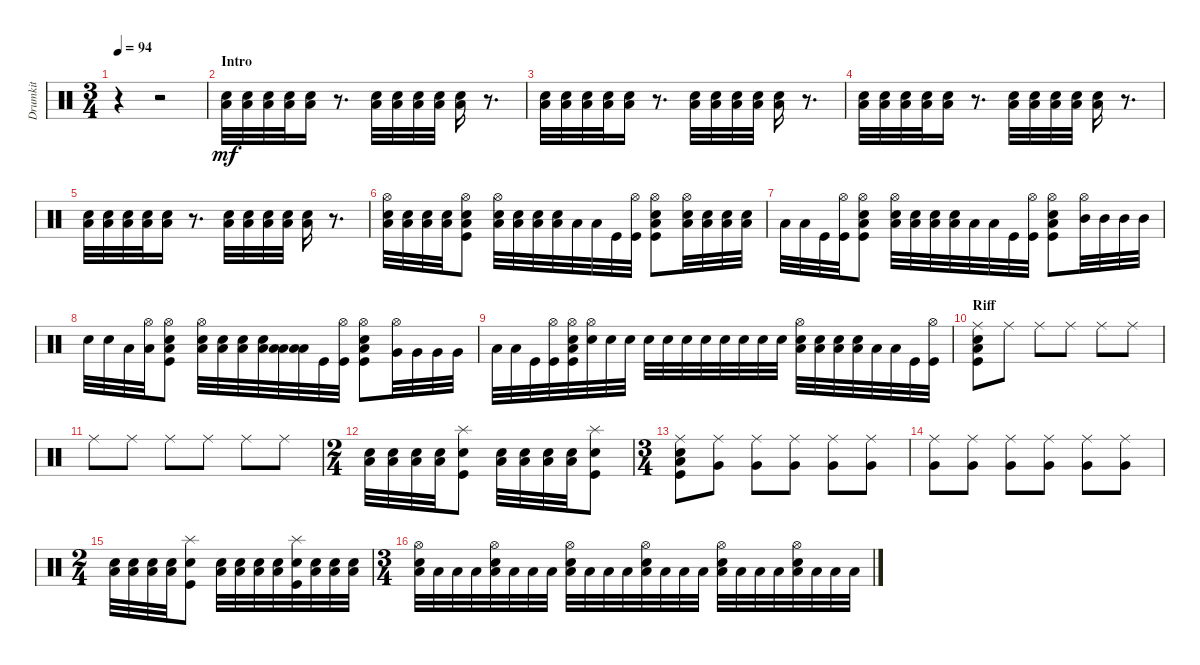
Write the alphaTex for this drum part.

\track ("Drumkit" "Drumkit") {instrument percussion}
\staff {score}
\articulation defaults
\ts (3 4)
\tempo 94
\clef neutral
\ks c
r.4{dy mf} r.2 |
\section ("" "Intro")
("Snare (hit) 2" "Low Tom (hit)").32 ("Snare (hit) 2" "Low Tom (hit)").32 ("Snare (hit) 2" "Low Tom (hit)").32 ("Snare (hit) 2" "Low Tom (hit)").32 ("Snare (hit) 2" "Low Tom (hit)").16 r.8{d} ("Snare (hit) 2" "Low Tom (hit)").32 ("Snare (hit) 2" "Low Tom (hit)").32 ("Snare (hit) 2" "Low Tom (hit)").32 ("Snare (hit) 2" "Low Tom (hit)").32 ("Snare (hit) 2" "Low Tom (hit)").16 r.8{d} |
("Snare (hit) 2" "Low Tom (hit)").32 ("Snare (hit) 2" "Low Tom (hit)").32 ("Snare (hit) 2" "Low Tom (hit)").32 ("Snare (hit) 2" "Low Tom (hit)").32 ("Snare (hit) 2" "Low Tom (hit)").16 r.8{d} ("Snare (hit) 2" "Low Tom (hit)").32 ("Snare (hit) 2" "Low Tom (hit)").32 ("Snare (hit) 2" "Low Tom (hit)").32 ("Snare (hit) 2" "Low Tom (hit)").32 ("Snare (hit) 2" "Low Tom (hit)").16 r.8{d} |
("Snare (hit) 2" "Low Tom (hit)").32 ("Snare (hit) 2" "Low Tom (hit)").32 ("Snare (hit) 2" "Low Tom (hit)").32 ("Snare (hit) 2" "Low Tom (hit)").32 ("Snare (hit) 2" "Low Tom (hit)").16 r.8{d} ("Snare (hit) 2" "Low Tom (hit)").32 ("Snare (hit) 2" "Low Tom (hit)").32 ("Snare (hit) 2" "Low Tom (hit)").32 ("Snare (hit) 2" "Low Tom (hit)").32 ("Snare (hit) 2" "Low Tom (hit)").16 r.8{d} |
("Snare (hit) 2" "Low Tom (hit)").32 ("Snare (hit) 2" "Low Tom (hit)").32 ("Snare (hit) 2" "Low Tom (hit)").32 ("Snare (hit) 2" "Low Tom (hit)").32 ("Snare (hit) 2" "Low Tom (hit)").16 r.8{d} ("Snare (hit) 2" "Low Tom (hit)").32 ("Snare (hit) 2" "Low Tom (hit)").32 ("Snare (hit) 2" "Low Tom (hit)").32 ("Snare (hit) 2" "Low Tom (hit)").32 ("Snare (hit) 2" "Low Tom (hit)").16 r.8{d} |
("Snare (hit) 2" "Low Tom (hit)" "Hi-Hat (open)").32 ("Snare (hit) 2" "Low Tom (hit)").32 ("Snare (hit) 2" "Low Tom (hit)").32 ("Snare (hit) 2" "Low Tom (hit)").32 ("Snare (hit) 2" "Kick (hit)" "Low Floor Tom (hit)" "Hi-Hat (open)").8 ("Snare (hit) 2" "Low Tom (hit)" "Hi-Hat (open)").32 ("Snare (hit) 2" "Low Tom (hit)").32 ("Snare (hit) 2" "Low Tom (hit)").32 ("Snare (hit) 2" "Low Tom (hit)").32 "Low Floor Tom (hit)".32 "Low Floor Tom (hit)".32 "Kick (hit)".32 ("Kick (hit)" "Hi-Hat (open)").32 ("Snare (hit) 2" "Kick (hit)" "Low Floor Tom (hit)" "Hi-Hat (open)").8 ("Snare (hit) 2" "Low Tom (hit)" "Hi-Hat (open)").32 ("Snare (hit) 2" "Low Tom (hit)").32 ("Snare (hit) 2" "Low Tom (hit)").32 ("Snare (hit) 2" "Low Tom (hit)").32 |
"Low Floor Tom (hit)".32 "Low Floor Tom (hit)".32 "Kick (hit)".32 ("Kick (hit)" "Hi-Hat (open)").32 ("Snare (hit) 2" "Kick (hit)" "Low Floor Tom (hit)" "Hi-Hat (open)").8 ("Snare (hit) 2" "Low Tom (hit)" "Hi-Hat (open)").32 ("Snare (hit) 2" "Low Tom (hit)").32 ("Snare (hit) 2" "Low Tom (hit)").32 ("Snare (hit) 2" "Low Tom (hit)").32 "Low Floor Tom (hit)".32 "Low Floor Tom (hit)".32 "Kick (hit)".32 ("Kick (hit)" "Hi-Hat (open)").32 ("Snare (hit) 2" "Kick (hit)" "Low Floor Tom (hit)" "Hi-Hat (open)").8 ("Hi-Hat (open)" "Mid Tom (hit)").32 "Mid Tom (hit)".32 "Mid Tom (hit)".32 "Mid Tom (hit)".32 |
"Snare (hit) 2".32 "Snare (hit) 2".32 "Low Tom (hit)".32 ("Hi-Hat (open)" "Low Tom (hit)").32 ("Snare (hit) 2" "Kick (hit)" "Low Floor Tom (hit)" "Hi-Hat (open)").8 ("Hi-Hat (open)" "Snare (hit) 2" "Low Tom (hit)").32 ("Snare (hit) 2" "Low Tom (hit)").32 ("Snare (hit) 2" "Low Tom (hit)").32 ("Snare (hit) 2" "Low Tom (hit)").32 ("Low Floor Tom (hit)" "Low Tom (hit)").32 ("Low Floor Tom (hit)" "Low Tom (hit)").32 "Kick (hit)".32 ("Kick (hit)" "Hi-Hat (open)").32 ("Snare (hit) 2" "Kick (hit)" "Low Floor Tom (hit)" "Hi-Hat (open)").8 ("Hi-Hat (open)" "Very Low Tom (hit)").32 "Very Low Tom (hit)".32 "Very Low Tom (hit)".32 "Very Low Tom (hit)".32 |
"Low Floor Tom (hit)".32 "Low Floor Tom (hit)".32 "Kick (hit)".32 ("Kick (hit)" "Hi-Hat (open)").32 ("Snare (hit) 2" "Kick (hit)" "Low Floor Tom (hit)" "Hi-Hat (open)").32 ("Snare (hit) 2" "Hi-Hat (open)").32 "Snare (hit) 2".32 "Snare (hit) 2".32 "Snare (hit) 2".32 "Snare (hit) 2".32 "Snare (hit) 2".32 "Snare (hit) 2".32 "Snare (hit) 2".32 "Snare (hit) 2".32 "Snare (hit) 2".32 "Snare (hit) 2".32 ("Snare (hit) 2" "Low Tom (hit)" "Hi-Hat (open)").32 ("Snare (hit) 2" "Low Tom (hit)").32 ("Snare (hit) 2" "Low Tom (hit)").32 ("Snare (hit) 2" "Low Tom (hit)").32 "Low Floor Tom (hit)".32 "Low Floor Tom (hit)".32 "Kick (hit)".32 ("Kick (hit)" "Hi-Hat (open)").32 |
\section ("" "Riff")
("Snare (hit) 2" "Kick (hit)" "Low Floor Tom (hit)" "Ride (middle)").8 "Ride (middle)".8 "Ride (middle)".8 "Ride (middle)".8 "Ride (middle)".8 "Ride (middle)".8 |
"Ride (middle)".8 "Ride (middle)".8 "Ride (middle)".8 "Ride (middle)".8 "Ride (middle)".8 "Ride (middle)".8 |
\ts (2 4)
("Snare (hit) 2" "Low Tom (hit)").32 ("Snare (hit) 2" "Low Tom (hit)").32 ("Snare (hit) 2" "Low Tom (hit)").32 ("Snare (hit) 2" "Low Tom (hit)").32 ("Snare (hit) 2" "Kick (hit)" "Splash (hit)").8 ("Snare (hit) 2" "Low Tom (hit)").32 ("Snare (hit) 2" "Low Tom (hit)").32 ("Snare (hit) 2" "Low Tom (hit)").32 ("Snare (hit) 2" "Low Tom (hit)").32 ("Snare (hit) 2" "Kick (hit)" "Splash (hit)").8 |
\ts (3 4)
("Snare (hit) 2" "Kick (hit)" "Ride (middle)" "Low Floor Tom (hit)").8 ("Ride (middle)" "Very Low Tom (hit)").8 ("Ride (middle)" "Very Low Tom (hit)").8 ("Ride (middle)" "Very Low Tom (hit)").8 ("Ride (middle)" "Very Low Tom (hit)").8 ("Ride (middle)" "Very Low Tom (hit)").8 |
("Ride (middle)" "Very Low Tom (hit)").8 ("Ride (middle)" "Very Low Tom (hit)").8 ("Ride (middle)" "Very Low Tom (hit)").8 ("Ride (middle)" "Very Low Tom (hit)").8 ("Ride (middle)" "Very Low Tom (hit)").8 ("Very Low Tom (hit)" "Ride (middle)").8 |
\ts (2 4)
("Snare (hit) 2" "Low Tom (hit)").32 ("Snare (hit) 2" "Low Tom (hit)").32 ("Snare (hit) 2" "Low Tom (hit)").32 ("Snare (hit) 2" "Low Tom (hit)").32 ("Snare (hit) 2" "Kick (hit)" "Splash (hit)").8 ("Snare (hit) 2" "Low Tom (hit)").32 ("Snare (hit) 2" "Low Tom (hit)").32 ("Snare (hit) 2" "Low Tom (hit)").32 ("Snare (hit) 2" "Low Tom (hit)").32 ("Snare (hit) 2" "Kick (hit)" "Splash (hit)").32 ("Snare (hit) 2" "Low Tom (hit)").32 ("Snare (hit) 2" "Low Tom (hit)").32 ("Snare (hit) 2" "Low Tom (hit)").32 |
\ts (3 4)
("Low Tom (hit)" "Hi-Hat (open)" "Snare (hit) 2").32 "Low Tom (hit)".32 "Low Tom (hit)".32 "Low Tom (hit)".32 ("Low Tom (hit)" "Hi-Hat (open)" "Snare (hit) 2").32 "Low Tom (hit)".32 "Low Tom (hit)".32 "Low Tom (hit)".32 ("Low Tom (hit)" "Hi-Hat (open)" "Snare (hit) 2").32 "Low Tom (hit)".32 "Low Tom (hit)".32 "Low Tom (hit)".32 ("Low Tom (hit)" "Hi-Hat (open)" "Snare (hit) 2").32 "Low Tom (hit)".32 "Low Tom (hit)".32 "Low Tom (hit)".32 ("Low Tom (hit)" "Hi-Hat (open)" "Snare (hit) 2").32 "Low Tom (hit)".32 "Low Tom (hit)".32 "Low Tom (hit)".32 ("Low Tom (hit)" "Hi-Hat (open)" "Snare (hit) 2").32 "Low Tom (hit)".32 "Low Tom (hit)".32 "Low Tom (hit)".32
